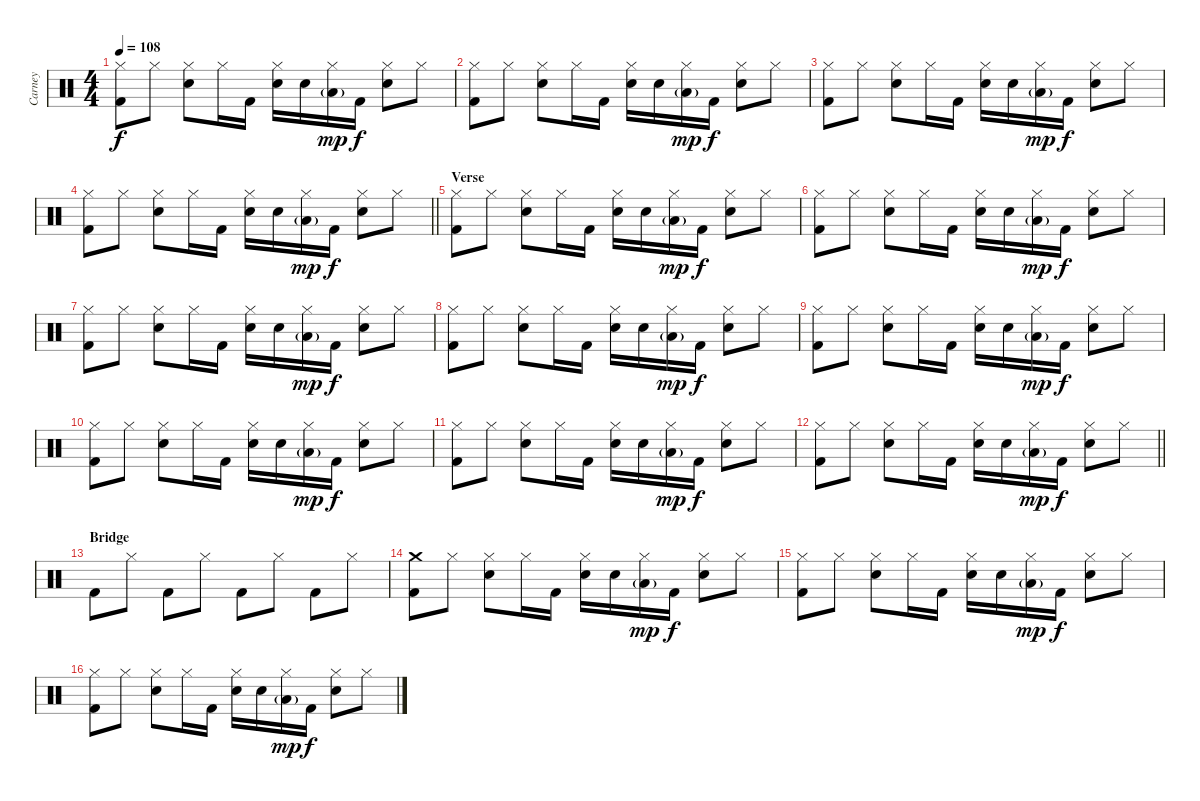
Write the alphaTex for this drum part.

\track ("Carney" "Carney") {instrument percussion}
\staff {score}
\articulation defaults
\ts (4 4)
\tempo 108
\clef neutral
\ks c
("Hi-Hat (closed)" "Kick (hit) 2").8{dy f} "Hi-Hat (closed)".8 ("Hi-Hat (closed)" "Snare (hit) 2").8 "Hi-Hat (closed)".16 "Kick (hit) 2".16 ("Hi-Hat (closed)" "Snare (hit) 2").16 "Snare (hit) 2".16 ("Hi-Hat (closed)" "Low Floor Tom (hit)"{g}).16{dy mp} "Kick (hit) 2".16{dy f} ("Hi-Hat (closed)" "Snare (hit) 2").8 "Hi-Hat (closed)".8 |
("Hi-Hat (closed)" "Kick (hit) 2").8 "Hi-Hat (closed)".8 ("Hi-Hat (closed)" "Snare (hit) 2").8 "Hi-Hat (closed)".16 "Kick (hit) 2".16 ("Hi-Hat (closed)" "Snare (hit) 2").16 "Snare (hit) 2".16 ("Hi-Hat (closed)" "Low Floor Tom (hit)"{g}).16{dy mp} "Kick (hit) 2".16{dy f} ("Hi-Hat (closed)" "Snare (hit) 2").8 "Hi-Hat (closed)".8 |
("Hi-Hat (closed)" "Kick (hit) 2").8 "Hi-Hat (closed)".8 ("Hi-Hat (closed)" "Snare (hit) 2").8 "Hi-Hat (closed)".16 "Kick (hit) 2".16 ("Hi-Hat (closed)" "Snare (hit) 2").16 "Snare (hit) 2".16 ("Hi-Hat (closed)" "Low Floor Tom (hit)"{g}).16{dy mp} "Kick (hit) 2".16{dy f} ("Hi-Hat (closed)" "Snare (hit) 2").8 "Hi-Hat (closed)".8 |
\barLineRight lightlight
("Hi-Hat (closed)" "Kick (hit) 2").8 "Hi-Hat (closed)".8 ("Hi-Hat (closed)" "Snare (hit) 2").8 "Hi-Hat (closed)".16 "Kick (hit) 2".16 ("Hi-Hat (closed)" "Snare (hit) 2").16 "Snare (hit) 2".16 ("Hi-Hat (closed)" "Low Floor Tom (hit)"{g}).16{dy mp} "Kick (hit) 2".16{dy f} ("Hi-Hat (closed)" "Snare (hit) 2").8 "Hi-Hat (closed)".8 |
\section ("" "Verse")
("Hi-Hat (closed)" "Kick (hit) 2").8 "Hi-Hat (closed)".8 ("Hi-Hat (closed)" "Snare (hit) 2").8 "Hi-Hat (closed)".16 "Kick (hit) 2".16 ("Hi-Hat (closed)" "Snare (hit) 2").16 "Snare (hit) 2".16 ("Hi-Hat (closed)" "Low Floor Tom (hit)"{g}).16{dy mp} "Kick (hit) 2".16{dy f} ("Hi-Hat (closed)" "Snare (hit) 2").8 "Hi-Hat (closed)".8 |
("Hi-Hat (closed)" "Kick (hit) 2").8 "Hi-Hat (closed)".8 ("Hi-Hat (closed)" "Snare (hit) 2").8 "Hi-Hat (closed)".16 "Kick (hit) 2".16 ("Hi-Hat (closed)" "Snare (hit) 2").16 "Snare (hit) 2".16 ("Hi-Hat (closed)" "Low Floor Tom (hit)"{g}).16{dy mp} "Kick (hit) 2".16{dy f} ("Hi-Hat (closed)" "Snare (hit) 2").8 "Hi-Hat (closed)".8 |
("Hi-Hat (closed)" "Kick (hit) 2").8 "Hi-Hat (closed)".8 ("Hi-Hat (closed)" "Snare (hit) 2").8 "Hi-Hat (closed)".16 "Kick (hit) 2".16 ("Hi-Hat (closed)" "Snare (hit) 2").16 "Snare (hit) 2".16 ("Hi-Hat (closed)" "Low Floor Tom (hit)"{g}).16{dy mp} "Kick (hit) 2".16{dy f} ("Hi-Hat (closed)" "Snare (hit) 2").8 "Hi-Hat (closed)".8 |
("Hi-Hat (closed)" "Kick (hit) 2").8 "Hi-Hat (closed)".8 ("Hi-Hat (closed)" "Snare (hit) 2").8 "Hi-Hat (closed)".16 "Kick (hit) 2".16 ("Hi-Hat (closed)" "Snare (hit) 2").16 "Snare (hit) 2".16 ("Hi-Hat (closed)" "Low Floor Tom (hit)"{g}).16{dy mp} "Kick (hit) 2".16{dy f} ("Hi-Hat (closed)" "Snare (hit) 2").8 "Hi-Hat (closed)".8 |
("Hi-Hat (closed)" "Kick (hit) 2").8 "Hi-Hat (closed)".8 ("Hi-Hat (closed)" "Snare (hit) 2").8 "Hi-Hat (closed)".16 "Kick (hit) 2".16 ("Hi-Hat (closed)" "Snare (hit) 2").16 "Snare (hit) 2".16 ("Hi-Hat (closed)" "Low Floor Tom (hit)"{g}).16{dy mp} "Kick (hit) 2".16{dy f} ("Hi-Hat (closed)" "Snare (hit) 2").8 "Hi-Hat (closed)".8 |
("Hi-Hat (closed)" "Kick (hit) 2").8 "Hi-Hat (closed)".8 ("Hi-Hat (closed)" "Snare (hit) 2").8 "Hi-Hat (closed)".16 "Kick (hit) 2".16 ("Hi-Hat (closed)" "Snare (hit) 2").16 "Snare (hit) 2".16 ("Hi-Hat (closed)" "Low Floor Tom (hit)"{g}).16{dy mp} "Kick (hit) 2".16{dy f} ("Hi-Hat (closed)" "Snare (hit) 2").8 "Hi-Hat (closed)".8 |
("Hi-Hat (closed)" "Kick (hit) 2").8 "Hi-Hat (closed)".8 ("Hi-Hat (closed)" "Snare (hit) 2").8 "Hi-Hat (closed)".16 "Kick (hit) 2".16 ("Hi-Hat (closed)" "Snare (hit) 2").16 "Snare (hit) 2".16 ("Hi-Hat (closed)" "Low Floor Tom (hit)"{g}).16{dy mp} "Kick (hit) 2".16{dy f} ("Hi-Hat (closed)" "Snare (hit) 2").8 "Hi-Hat (closed)".8 |
\barLineRight lightlight
("Hi-Hat (closed)" "Kick (hit) 2").8 "Hi-Hat (closed)".8 ("Hi-Hat (closed)" "Snare (hit) 2").8 "Hi-Hat (closed)".16 "Kick (hit) 2".16 ("Hi-Hat (closed)" "Snare (hit) 2").16 "Snare (hit) 2".16 ("Hi-Hat (closed)" "Low Floor Tom (hit)"{g}).16{dy mp} "Kick (hit) 2".16{dy f} ("Hi-Hat (closed)" "Snare (hit) 2").8 "Hi-Hat (closed)".8 |
\section ("" "Bridge")
"Kick (hit) 2".8 "Hi-Hat (closed)".8 "Kick (hit) 2".8 "Hi-Hat (closed)".8 "Kick (hit) 2".8 "Hi-Hat (closed)".8 "Kick (hit) 2".8 "Hi-Hat (closed)".8 |
("Crash medium (hit)" "Kick (hit) 2").8 "Hi-Hat (closed)".8 ("Hi-Hat (closed)" "Snare (hit) 2").8 "Hi-Hat (closed)".16 "Kick (hit) 2".16 ("Hi-Hat (closed)" "Snare (hit) 2").16 "Snare (hit) 2".16 ("Hi-Hat (closed)" "Low Floor Tom (hit)"{g}).16{dy mp} "Kick (hit) 2".16{dy f} ("Hi-Hat (closed)" "Snare (hit) 2").8 "Hi-Hat (closed)".8 |
("Hi-Hat (closed)" "Kick (hit) 2").8 "Hi-Hat (closed)".8 ("Hi-Hat (closed)" "Snare (hit) 2").8 "Hi-Hat (closed)".16 "Kick (hit) 2".16 ("Hi-Hat (closed)" "Snare (hit) 2").16 "Snare (hit) 2".16 ("Hi-Hat (closed)" "Low Floor Tom (hit)"{g}).16{dy mp} "Kick (hit) 2".16{dy f} ("Hi-Hat (closed)" "Snare (hit) 2").8 "Hi-Hat (closed)".8 |
("Hi-Hat (closed)" "Kick (hit) 2").8 "Hi-Hat (closed)".8 ("Hi-Hat (closed)" "Snare (hit) 2").8 "Hi-Hat (closed)".16 "Kick (hit) 2".16 ("Hi-Hat (closed)" "Snare (hit) 2").16 "Snare (hit) 2".16 ("Hi-Hat (closed)" "Low Floor Tom (hit)"{g}).16{dy mp} "Kick (hit) 2".16{dy f} ("Hi-Hat (closed)" "Snare (hit) 2").8 "Hi-Hat (closed)".8
